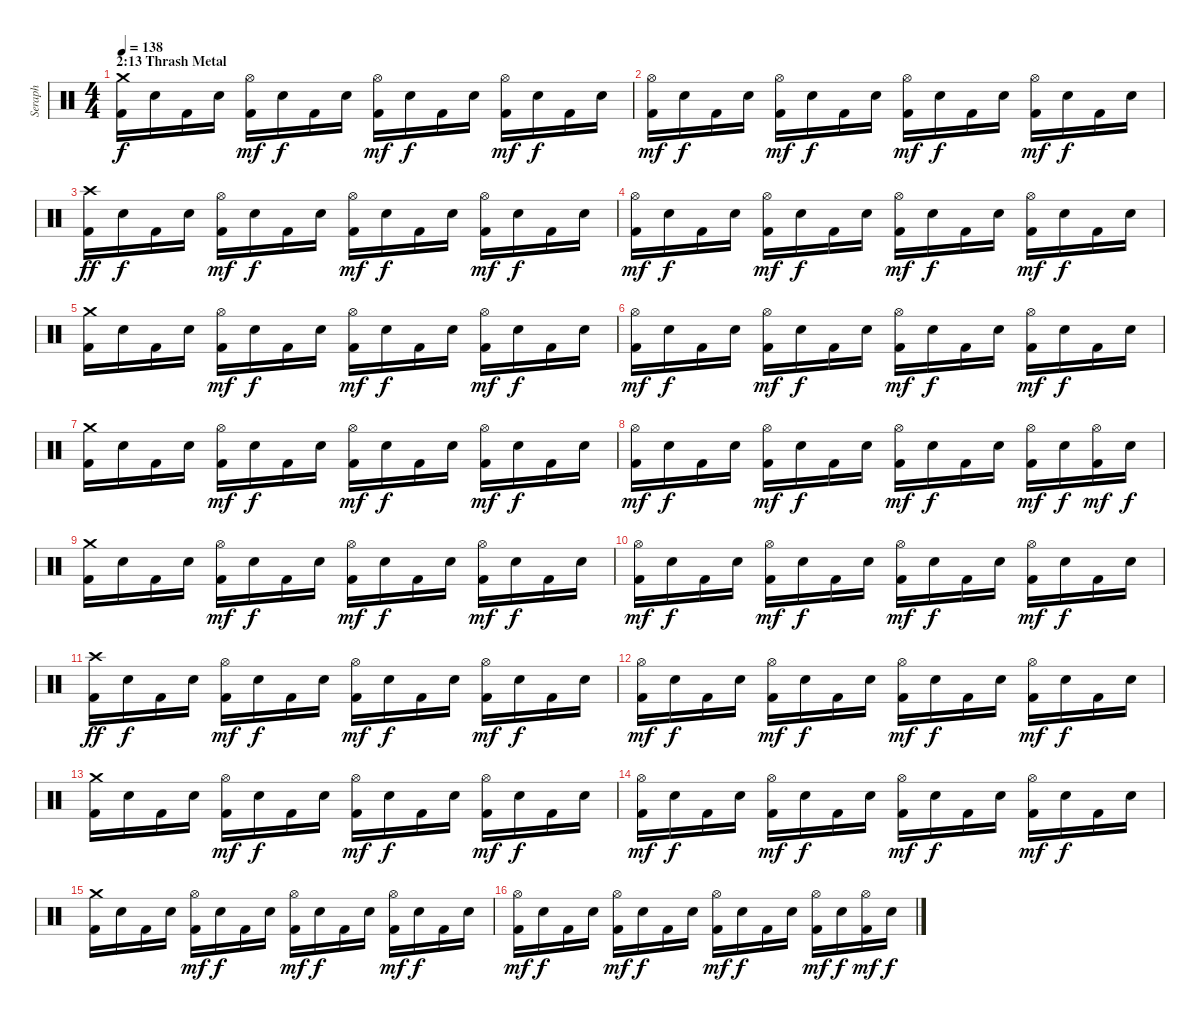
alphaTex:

\track ("Seraph" "Seraph") {instrument percussion}
\staff {score}
\articulation defaults
\ts (4 4)
\section ("" "2:13 Thrash Metal")
\tempo 138
\clef neutral
\ks c
("Kick (hit) 2" "Crash medium (hit)").16{dy f} "Electric Snare (hit)".16 "Kick (hit) 2".16 "Electric Snare (hit)".16 ("Kick (hit) 2" "Hi-Hat (open)").16{dy mf} "Electric Snare (hit)".16{dy f} "Kick (hit) 2".16 "Electric Snare (hit)".16 ("Kick (hit) 2" "Hi-Hat (open)").16{dy mf} "Electric Snare (hit)".16{dy f} "Kick (hit) 2".16 "Electric Snare (hit)".16 ("Kick (hit) 2" "Hi-Hat (open)").16{dy mf} "Electric Snare (hit)".16{dy f} "Kick (hit) 2".16 "Electric Snare (hit)".16 |
("Kick (hit) 2" "Hi-Hat (open)").16{dy mf} "Electric Snare (hit)".16{dy f} "Kick (hit) 2".16 "Electric Snare (hit)".16 ("Kick (hit) 2" "Hi-Hat (open)").16{dy mf} "Electric Snare (hit)".16{dy f} "Kick (hit) 2".16 "Electric Snare (hit)".16 ("Kick (hit) 2" "Hi-Hat (open)").16{dy mf} "Electric Snare (hit)".16{dy f} "Kick (hit) 2".16 "Electric Snare (hit)".16 ("Kick (hit) 2" "Hi-Hat (open)").16{dy mf} "Electric Snare (hit)".16{dy f} "Kick (hit) 2".16 "Electric Snare (hit)".16 |
("Kick (hit) 2" "Crash high (hit)").16{dy ff} "Electric Snare (hit)".16{dy f} "Kick (hit) 2".16 "Electric Snare (hit)".16 ("Kick (hit) 2" "Hi-Hat (open)").16{dy mf} "Electric Snare (hit)".16{dy f} "Kick (hit) 2".16 "Electric Snare (hit)".16 ("Kick (hit) 2" "Hi-Hat (open)").16{dy mf} "Electric Snare (hit)".16{dy f} "Kick (hit) 2".16 "Electric Snare (hit)".16 ("Kick (hit) 2" "Hi-Hat (open)").16{dy mf} "Electric Snare (hit)".16{dy f} "Kick (hit) 2".16 "Electric Snare (hit)".16 |
("Kick (hit) 2" "Hi-Hat (open)").16{dy mf} "Electric Snare (hit)".16{dy f} "Kick (hit) 2".16 "Electric Snare (hit)".16 ("Kick (hit) 2" "Hi-Hat (open)").16{dy mf} "Electric Snare (hit)".16{dy f} "Kick (hit) 2".16 "Electric Snare (hit)".16 ("Kick (hit) 2" "Hi-Hat (open)").16{dy mf} "Electric Snare (hit)".16{dy f} "Kick (hit) 2".16 "Electric Snare (hit)".16 ("Kick (hit) 2" "Hi-Hat (open)").16{dy mf} "Electric Snare (hit)".16{dy f} "Kick (hit) 2".16 "Electric Snare (hit)".16 |
("Kick (hit) 2" "Crash medium (hit)").16 "Electric Snare (hit)".16 "Kick (hit) 2".16 "Electric Snare (hit)".16 ("Kick (hit) 2" "Hi-Hat (open)").16{dy mf} "Electric Snare (hit)".16{dy f} "Kick (hit) 2".16 "Electric Snare (hit)".16 ("Kick (hit) 2" "Hi-Hat (open)").16{dy mf} "Electric Snare (hit)".16{dy f} "Kick (hit) 2".16 "Electric Snare (hit)".16 ("Kick (hit) 2" "Hi-Hat (open)").16{dy mf} "Electric Snare (hit)".16{dy f} "Kick (hit) 2".16 "Electric Snare (hit)".16 |
("Kick (hit) 2" "Hi-Hat (open)").16{dy mf} "Electric Snare (hit)".16{dy f} "Kick (hit) 2".16 "Electric Snare (hit)".16 ("Kick (hit) 2" "Hi-Hat (open)").16{dy mf} "Electric Snare (hit)".16{dy f} "Kick (hit) 2".16 "Electric Snare (hit)".16 ("Kick (hit) 2" "Hi-Hat (open)").16{dy mf} "Electric Snare (hit)".16{dy f} "Kick (hit) 2".16 "Electric Snare (hit)".16 ("Kick (hit) 2" "Hi-Hat (open)").16{dy mf} "Electric Snare (hit)".16{dy f} "Kick (hit) 2".16 "Electric Snare (hit)".16 |
("Kick (hit) 2" "Crash medium (hit)").16 "Electric Snare (hit)".16 "Kick (hit) 2".16 "Electric Snare (hit)".16 ("Kick (hit) 2" "Hi-Hat (open)").16{dy mf} "Electric Snare (hit)".16{dy f} "Kick (hit) 2".16 "Electric Snare (hit)".16 ("Kick (hit) 2" "Hi-Hat (open)").16{dy mf} "Electric Snare (hit)".16{dy f} "Kick (hit) 2".16 "Electric Snare (hit)".16 ("Kick (hit) 2" "Hi-Hat (open)").16{dy mf} "Electric Snare (hit)".16{dy f} "Kick (hit) 2".16 "Electric Snare (hit)".16 |
("Kick (hit) 2" "Hi-Hat (open)").16{dy mf} "Electric Snare (hit)".16{dy f} "Kick (hit) 2".16 "Electric Snare (hit)".16 ("Kick (hit) 2" "Hi-Hat (open)").16{dy mf} "Electric Snare (hit)".16{dy f} "Kick (hit) 2".16 "Electric Snare (hit)".16 ("Kick (hit) 2" "Hi-Hat (open)").16{dy mf} "Electric Snare (hit)".16{dy f} "Kick (hit) 2".16 "Electric Snare (hit)".16 ("Kick (hit) 2" "Hi-Hat (open)").16{dy mf} "Electric Snare (hit)".16{dy f} ("Kick (hit) 2" "Hi-Hat (open)").16{dy mf} "Electric Snare (hit)".16{dy f} |
("Kick (hit) 2" "Crash medium (hit)").16 "Electric Snare (hit)".16 "Kick (hit) 2".16 "Electric Snare (hit)".16 ("Kick (hit) 2" "Hi-Hat (open)").16{dy mf} "Electric Snare (hit)".16{dy f} "Kick (hit) 2".16 "Electric Snare (hit)".16 ("Kick (hit) 2" "Hi-Hat (open)").16{dy mf} "Electric Snare (hit)".16{dy f} "Kick (hit) 2".16 "Electric Snare (hit)".16 ("Kick (hit) 2" "Hi-Hat (open)").16{dy mf} "Electric Snare (hit)".16{dy f} "Kick (hit) 2".16 "Electric Snare (hit)".16 |
("Kick (hit) 2" "Hi-Hat (open)").16{dy mf} "Electric Snare (hit)".16{dy f} "Kick (hit) 2".16 "Electric Snare (hit)".16 ("Kick (hit) 2" "Hi-Hat (open)").16{dy mf} "Electric Snare (hit)".16{dy f} "Kick (hit) 2".16 "Electric Snare (hit)".16 ("Kick (hit) 2" "Hi-Hat (open)").16{dy mf} "Electric Snare (hit)".16{dy f} "Kick (hit) 2".16 "Electric Snare (hit)".16 ("Kick (hit) 2" "Hi-Hat (open)").16{dy mf} "Electric Snare (hit)".16{dy f} "Kick (hit) 2".16 "Electric Snare (hit)".16 |
("Kick (hit) 2" "Crash high (hit)").16{dy ff} "Electric Snare (hit)".16{dy f} "Kick (hit) 2".16 "Electric Snare (hit)".16 ("Kick (hit) 2" "Hi-Hat (open)").16{dy mf} "Electric Snare (hit)".16{dy f} "Kick (hit) 2".16 "Electric Snare (hit)".16 ("Kick (hit) 2" "Hi-Hat (open)").16{dy mf} "Electric Snare (hit)".16{dy f} "Kick (hit) 2".16 "Electric Snare (hit)".16 ("Kick (hit) 2" "Hi-Hat (open)").16{dy mf} "Electric Snare (hit)".16{dy f} "Kick (hit) 2".16 "Electric Snare (hit)".16 |
("Kick (hit) 2" "Hi-Hat (open)").16{dy mf} "Electric Snare (hit)".16{dy f} "Kick (hit) 2".16 "Electric Snare (hit)".16 ("Kick (hit) 2" "Hi-Hat (open)").16{dy mf} "Electric Snare (hit)".16{dy f} "Kick (hit) 2".16 "Electric Snare (hit)".16 ("Kick (hit) 2" "Hi-Hat (open)").16{dy mf} "Electric Snare (hit)".16{dy f} "Kick (hit) 2".16 "Electric Snare (hit)".16 ("Kick (hit) 2" "Hi-Hat (open)").16{dy mf} "Electric Snare (hit)".16{dy f} "Kick (hit) 2".16 "Electric Snare (hit)".16 |
("Kick (hit) 2" "Crash medium (hit)").16 "Electric Snare (hit)".16 "Kick (hit) 2".16 "Electric Snare (hit)".16 ("Kick (hit) 2" "Hi-Hat (open)").16{dy mf} "Electric Snare (hit)".16{dy f} "Kick (hit) 2".16 "Electric Snare (hit)".16 ("Kick (hit) 2" "Hi-Hat (open)").16{dy mf} "Electric Snare (hit)".16{dy f} "Kick (hit) 2".16 "Electric Snare (hit)".16 ("Kick (hit) 2" "Hi-Hat (open)").16{dy mf} "Electric Snare (hit)".16{dy f} "Kick (hit) 2".16 "Electric Snare (hit)".16 |
("Kick (hit) 2" "Hi-Hat (open)").16{dy mf} "Electric Snare (hit)".16{dy f} "Kick (hit) 2".16 "Electric Snare (hit)".16 ("Kick (hit) 2" "Hi-Hat (open)").16{dy mf} "Electric Snare (hit)".16{dy f} "Kick (hit) 2".16 "Electric Snare (hit)".16 ("Kick (hit) 2" "Hi-Hat (open)").16{dy mf} "Electric Snare (hit)".16{dy f} "Kick (hit) 2".16 "Electric Snare (hit)".16 ("Kick (hit) 2" "Hi-Hat (open)").16{dy mf} "Electric Snare (hit)".16{dy f} "Kick (hit) 2".16 "Electric Snare (hit)".16 |
("Kick (hit) 2" "Crash medium (hit)").16 "Electric Snare (hit)".16 "Kick (hit) 2".16 "Electric Snare (hit)".16 ("Kick (hit) 2" "Hi-Hat (open)").16{dy mf} "Electric Snare (hit)".16{dy f} "Kick (hit) 2".16 "Electric Snare (hit)".16 ("Kick (hit) 2" "Hi-Hat (open)").16{dy mf} "Electric Snare (hit)".16{dy f} "Kick (hit) 2".16 "Electric Snare (hit)".16 ("Kick (hit) 2" "Hi-Hat (open)").16{dy mf} "Electric Snare (hit)".16{dy f} "Kick (hit) 2".16 "Electric Snare (hit)".16 |
("Kick (hit) 2" "Hi-Hat (open)").16{dy mf} "Electric Snare (hit)".16{dy f} "Kick (hit) 2".16 "Electric Snare (hit)".16 ("Kick (hit) 2" "Hi-Hat (open)").16{dy mf} "Electric Snare (hit)".16{dy f} "Kick (hit) 2".16 "Electric Snare (hit)".16 ("Kick (hit) 2" "Hi-Hat (open)").16{dy mf} "Electric Snare (hit)".16{dy f} "Kick (hit) 2".16 "Electric Snare (hit)".16 ("Kick (hit) 2" "Hi-Hat (open)").16{dy mf} "Electric Snare (hit)".16{dy f} ("Kick (hit) 2" "Hi-Hat (open)").16{dy mf} "Electric Snare (hit)".16{dy f}
